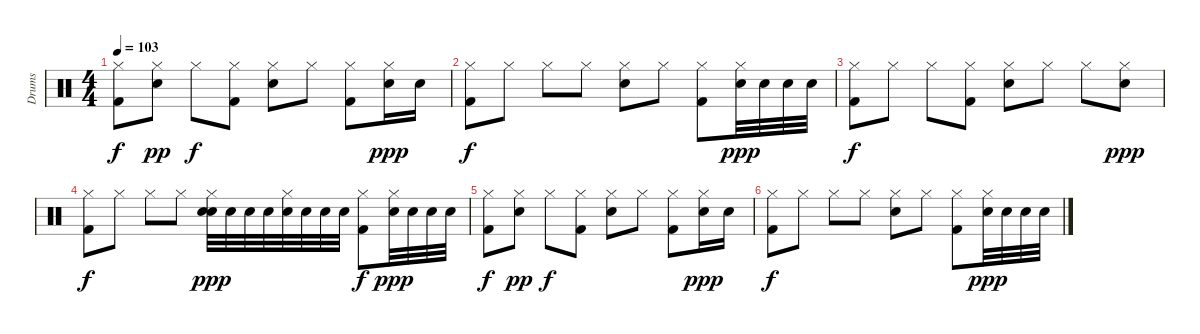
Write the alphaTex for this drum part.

\track ("Drums" "Drums") {instrument percussion}
\staff {score}
\articulation defaults
\ts (4 4)
\tempo 103
\clef neutral
\ks c
("Kick (hit) 2" "Hi-Hat (closed)").8{dy f} ("Hi-Hat (closed)" "Snare (hit) 2").8{dy pp} "Hi-Hat (closed)".8{dy f} ("Hi-Hat (closed)" "Kick (hit) 2").8 ("Hi-Hat (closed)" "Electric Snare (hit)").8 "Hi-Hat (closed)".8 ("Hi-Hat (closed)" "Kick (hit) 2").8 ("Hi-Hat (closed)" "Snare (hit) 2").16{dy ppp} "Snare (hit) 2".16 |
("Kick (hit) 2" "Hi-Hat (closed)").8{dy f} "Hi-Hat (closed)".8 "Hi-Hat (closed)".8 "Hi-Hat (closed)".8 ("Hi-Hat (closed)" "Electric Snare (hit)").8 "Hi-Hat (closed)".8 ("Hi-Hat (closed)" "Kick (hit) 2").8 ("Hi-Hat (closed)" "Snare (hit) 2").32{dy ppp} "Snare (hit) 2".32 "Snare (hit) 2".32 "Snare (hit) 2".32 |
("Kick (hit) 2" "Hi-Hat (closed)").8{dy f volume 0} "Hi-Hat (closed)".8 "Hi-Hat (closed)".8 ("Hi-Hat (closed)" "Kick (hit) 2").8 ("Hi-Hat (closed)" "Electric Snare (hit)").8 "Hi-Hat (closed)".8 "Hi-Hat (closed)".8 ("Hi-Hat (closed)" "Snare (hit) 2").8{dy ppp} |
("Kick (hit) 2" "Hi-Hat (closed)").8{dy f} "Hi-Hat (closed)".8 "Hi-Hat (closed)".8 "Hi-Hat (closed)".8 ("Hi-Hat (closed)" "Electric Snare (hit)" "Snare (hit) 2").32{dy ppp} "Snare (hit) 2".32 "Snare (hit) 2".32 "Snare (hit) 2".32 ("Hi-Hat (closed)" "Snare (hit) 2").32 "Snare (hit) 2".32 "Snare (hit) 2".32 "Snare (hit) 2".32 ("Hi-Hat (closed)" "Kick (hit) 2").8{dy f} ("Hi-Hat (closed)" "Snare (hit) 2").32{dy ppp} "Snare (hit) 2".32 "Snare (hit) 2".32 "Snare (hit) 2".32 |
("Kick (hit) 2" "Hi-Hat (closed)").8{dy f} ("Hi-Hat (closed)" "Snare (hit) 2").8{dy pp} "Hi-Hat (closed)".8{dy f} ("Hi-Hat (closed)" "Kick (hit) 2").8 ("Hi-Hat (closed)" "Electric Snare (hit)").8 "Hi-Hat (closed)".8 ("Hi-Hat (closed)" "Kick (hit) 2").8 ("Hi-Hat (closed)" "Snare (hit) 2").16{dy ppp} "Snare (hit) 2".16 |
("Kick (hit) 2" "Hi-Hat (closed)").8{dy f} "Hi-Hat (closed)".8 "Hi-Hat (closed)".8 "Hi-Hat (closed)".8 ("Hi-Hat (closed)" "Electric Snare (hit)").8 "Hi-Hat (closed)".8 ("Hi-Hat (closed)" "Kick (hit) 2").8 ("Hi-Hat (closed)" "Snare (hit) 2").32{dy ppp} "Snare (hit) 2".32 "Snare (hit) 2".32 "Snare (hit) 2".32
